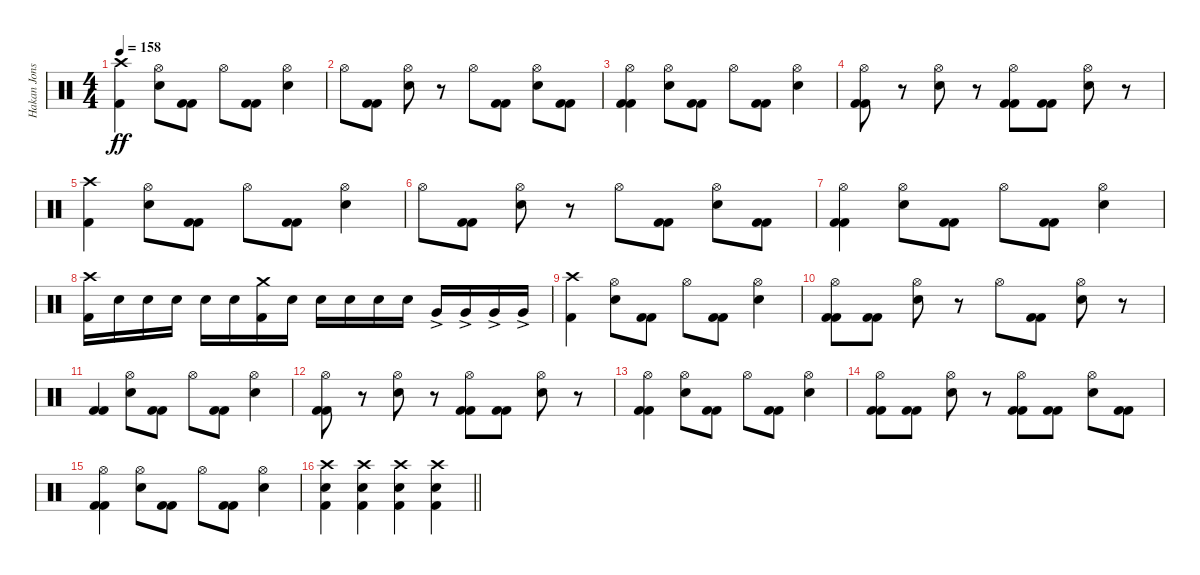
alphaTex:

\track ("Hakan Jonsson" "Hakan Jons") {instrument percussion}
\staff {score}
\articulation defaults
\ts (4 4)
\tempo 158
\clef neutral
\ks c
("Crash high (hit)" "Kick (hit) 2").4{dy ff} ("Hi-Hat (open)" "Electric Snare (hit)").8 ("Kick (hit) 2" "Kick (hit) 2").8 "Hi-Hat (open)".8 ("Kick (hit) 2" "Kick (hit) 2").8 ("Hi-Hat (open)" "Electric Snare (hit)").4 |
"Hi-Hat (open)".8 ("Kick (hit) 2" "Kick (hit) 2").8 ("Hi-Hat (open)" "Electric Snare (hit)").8 r.8 "Hi-Hat (open)".8 ("Kick (hit) 2" "Kick (hit) 2").8 ("Hi-Hat (open)" "Electric Snare (hit)").8 ("Kick (hit) 2" "Kick (hit) 2").8 |
("Kick (hit) 2" "Hi-Hat (open)" "Kick (hit) 2").4 ("Hi-Hat (open)" "Electric Snare (hit)").8 ("Kick (hit) 2" "Kick (hit) 2").8 "Hi-Hat (open)".8 ("Kick (hit) 2" "Kick (hit) 2").8 ("Hi-Hat (open)" "Electric Snare (hit)").4 |
("Kick (hit) 2" "Hi-Hat (open)" "Kick (hit) 2").8 r.8 ("Hi-Hat (open)" "Electric Snare (hit)").8 r.8 ("Kick (hit) 2" "Hi-Hat (open)" "Kick (hit) 2").8 ("Kick (hit) 2" "Kick (hit) 2").8 ("Hi-Hat (open)" "Electric Snare (hit)").8 r.8 |
("Crash high (hit)" "Kick (hit) 2").4 ("Hi-Hat (open)" "Electric Snare (hit)").8 ("Kick (hit) 2" "Kick (hit) 2").8 "Hi-Hat (open)".8 ("Kick (hit) 2" "Kick (hit) 2").8 ("Hi-Hat (open)" "Electric Snare (hit)").4 |
"Hi-Hat (open)".8 ("Kick (hit) 2" "Kick (hit) 2").8 ("Hi-Hat (open)" "Electric Snare (hit)").8 r.8 "Hi-Hat (open)".8 ("Kick (hit) 2" "Kick (hit) 2").8 ("Hi-Hat (open)" "Electric Snare (hit)").8 ("Kick (hit) 2" "Kick (hit) 2").8 |
("Kick (hit) 2" "Hi-Hat (open)" "Kick (hit) 2").4 ("Hi-Hat (open)" "Electric Snare (hit)").8 ("Kick (hit) 2" "Kick (hit) 2").8 "Hi-Hat (open)".8 ("Kick (hit) 2" "Kick (hit) 2").8 ("Hi-Hat (open)" "Electric Snare (hit)").4 |
("Crash high (hit)" "Kick (hit) 2").16 "Electric Snare (hit)".16 "Electric Snare (hit)".16 "Electric Snare (hit)".16 "Electric Snare (hit)".16 "Electric Snare (hit)".16 ("Crash medium (hit)" "Kick (hit) 2").16 "Electric Snare (hit)".16 "Electric Snare (hit)".16 "Electric Snare (hit)".16 "Electric Snare (hit)".16 "Electric Snare (hit)".16 "Very Low Tom (hit)"{ac}.16 "Very Low Tom (hit)"{ac}.16 "Very Low Tom (hit)"{ac}.16 "Very Low Tom (hit)"{ac}.16 |
("Crash high (hit)" "Kick (hit) 2").4 ("Hi-Hat (open)" "Electric Snare (hit)").8 ("Kick (hit) 2" "Kick (hit) 2").8 "Hi-Hat (open)".8 ("Kick (hit) 2" "Kick (hit) 2").8 ("Hi-Hat (open)" "Electric Snare (hit)").4 |
("Kick (hit) 2" "Hi-Hat (open)" "Kick (hit) 2").8 ("Kick (hit) 2" "Kick (hit) 2").8 ("Hi-Hat (open)" "Electric Snare (hit)").8 r.8 "Hi-Hat (open)".8 ("Kick (hit) 2" "Kick (hit) 2").8 ("Hi-Hat (open)" "Electric Snare (hit)").8 r.8 |
("Kick (hit) 2" "Kick (hit) 2").4 ("Hi-Hat (open)" "Electric Snare (hit)").8 ("Kick (hit) 2" "Kick (hit) 2").8 "Hi-Hat (open)".8 ("Kick (hit) 2" "Kick (hit) 2").8 ("Hi-Hat (open)" "Electric Snare (hit)").4 |
("Kick (hit) 2" "Hi-Hat (open)" "Kick (hit) 2").8 r.8 ("Hi-Hat (open)" "Electric Snare (hit)").8 r.8 ("Kick (hit) 2" "Hi-Hat (open)" "Kick (hit) 2").8 ("Kick (hit) 2" "Kick (hit) 2").8 ("Hi-Hat (open)" "Electric Snare (hit)").8 r.8 |
("Kick (hit) 2" "Hi-Hat (open)" "Kick (hit) 2").4 ("Hi-Hat (open)" "Electric Snare (hit)").8 ("Kick (hit) 2" "Kick (hit) 2").8 "Hi-Hat (open)".8 ("Kick (hit) 2" "Kick (hit) 2").8 ("Hi-Hat (open)" "Electric Snare (hit)").4 |
("Kick (hit) 2" "Hi-Hat (open)" "Kick (hit) 2").8 ("Kick (hit) 2" "Kick (hit) 2").8 ("Hi-Hat (open)" "Electric Snare (hit)").8 r.8 ("Kick (hit) 2" "Hi-Hat (open)" "Kick (hit) 2").8 ("Kick (hit) 2" "Kick (hit) 2").8 ("Hi-Hat (open)" "Electric Snare (hit)").8 ("Kick (hit) 2" "Kick (hit) 2").8 |
("Kick (hit) 2" "Hi-Hat (open)" "Kick (hit) 2").4 ("Hi-Hat (open)" "Electric Snare (hit)").8 ("Kick (hit) 2" "Kick (hit) 2").8 "Hi-Hat (open)".8 ("Kick (hit) 2" "Kick (hit) 2").8 ("Hi-Hat (open)" "Electric Snare (hit)").4 |
\barLineRight lightlight
("Crash high (hit)" "Electric Snare (hit)" "Kick (hit) 2").4 ("Crash high (hit)" "Electric Snare (hit)" "Kick (hit) 2").4 ("Crash high (hit)" "Electric Snare (hit)" "Kick (hit) 2").4 ("Crash high (hit)" "Electric Snare (hit)" "Kick (hit) 2").4
